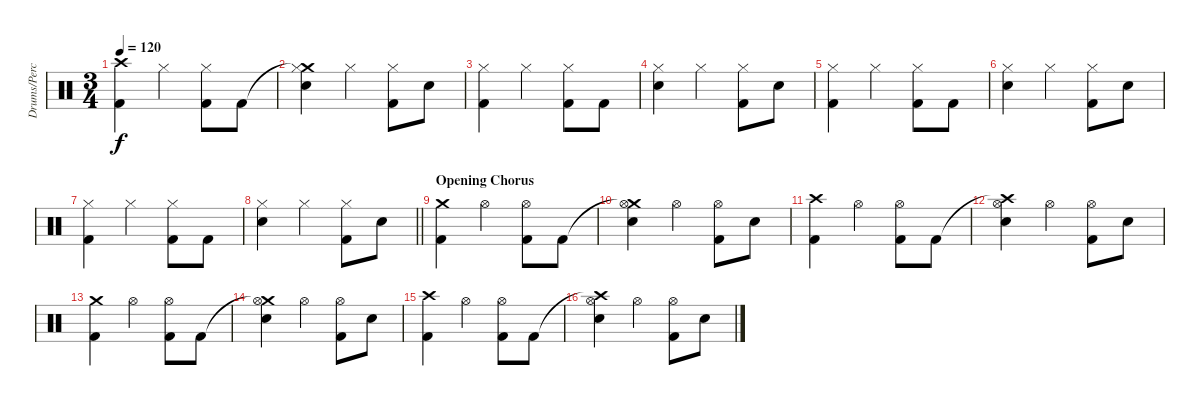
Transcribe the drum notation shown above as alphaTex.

\track ("Drums/Percussion" "Drums/Perc") {instrument percussion}
\staff {score}
\articulation defaults
\ts (3 4)
\tempo 120
\clef neutral
\ks c
("Crash high (hit)" "Kick (hit) 2").4{dy f} "Hi-Hat (closed)".4 ("Hi-Hat (closed)" "Kick (hit) 2").8 "Kick (hit) 2".8 |
("Crash medium (hit)"{t} "Hi-Hat (closed)" "Snare (hit) 2").4 "Hi-Hat (closed)".4 ("Hi-Hat (closed)" "Kick (hit) 2").8 "Snare (hit) 2".8 |
("Hi-Hat (closed)" "Kick (hit) 2").4 "Hi-Hat (closed)".4 ("Hi-Hat (closed)" "Kick (hit) 2").8 "Kick (hit) 2".8 |
("Hi-Hat (closed)" "Snare (hit) 2").4 "Hi-Hat (closed)".4 ("Hi-Hat (closed)" "Kick (hit) 2").8 "Snare (hit) 2".8 |
("Hi-Hat (closed)" "Kick (hit) 2").4 "Hi-Hat (closed)".4 ("Hi-Hat (closed)" "Kick (hit) 2").8 "Kick (hit) 2".8 |
("Hi-Hat (closed)" "Snare (hit) 2").4 "Hi-Hat (closed)".4 ("Hi-Hat (closed)" "Kick (hit) 2").8 "Snare (hit) 2".8 |
("Hi-Hat (closed)" "Kick (hit) 2").4 "Hi-Hat (closed)".4 ("Hi-Hat (closed)" "Kick (hit) 2").8 "Kick (hit) 2".8 |
\barLineRight lightlight
("Hi-Hat (closed)" "Snare (hit) 2").4 "Hi-Hat (closed)".4 ("Hi-Hat (closed)" "Kick (hit) 2").8 "Snare (hit) 2".8 |
\section ("" "Opening Chorus")
("Crash medium (hit)" "Kick (hit) 2").4 "Hi-Hat (open)".4 ("Hi-Hat (open)" "Kick (hit) 2").8 "Kick (hit) 2".8 |
("Crash medium (hit)"{t} "Hi-Hat (open)" "Snare (hit) 2").4 "Hi-Hat (open)".4 ("Hi-Hat (open)" "Kick (hit) 2").8 "Snare (hit) 2".8 |
("Crash high (hit)" "Kick (hit) 2").4 "Hi-Hat (open)".4 ("Hi-Hat (open)" "Kick (hit) 2").8 "Kick (hit) 2".8 |
("Crash high (hit)"{t} "Hi-Hat (open)" "Snare (hit) 2").4 "Hi-Hat (open)".4 ("Hi-Hat (open)" "Kick (hit) 2").8 "Snare (hit) 2".8 |
("Crash medium (hit)" "Kick (hit) 2").4 "Hi-Hat (open)".4 ("Hi-Hat (open)" "Kick (hit) 2").8 "Kick (hit) 2".8 |
("Crash medium (hit)"{t} "Hi-Hat (open)" "Snare (hit) 2").4 "Hi-Hat (open)".4 ("Hi-Hat (open)" "Kick (hit) 2").8 "Snare (hit) 2".8 |
("Crash high (hit)" "Kick (hit) 2").4 "Hi-Hat (open)".4 ("Hi-Hat (open)" "Kick (hit) 2").8 "Kick (hit) 2".8 |
("Crash high (hit)"{t} "Hi-Hat (open)" "Snare (hit) 2").4 "Hi-Hat (open)".4 ("Hi-Hat (open)" "Kick (hit) 2").8 "Snare (hit) 2".8
